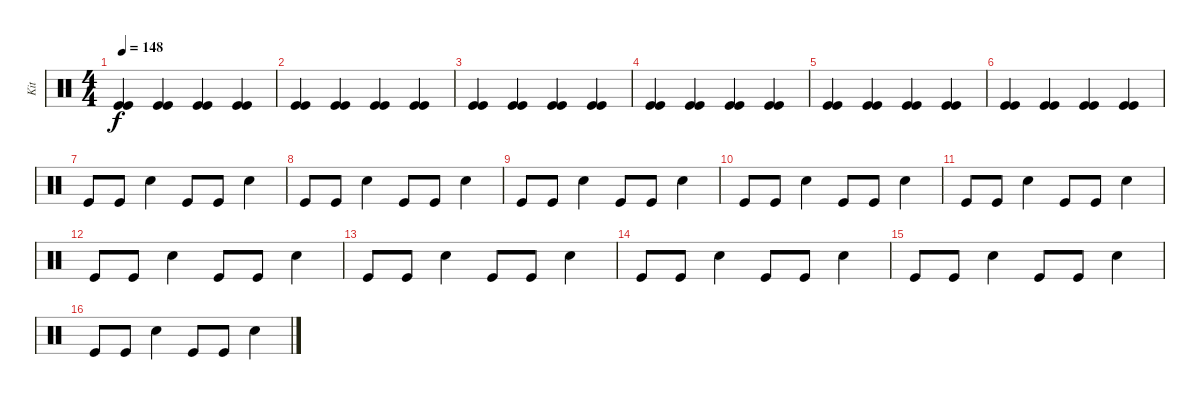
\track ("Kit" "Kit") {instrument percussion}
\staff {score}
\articulation defaults
\ts (4 4)
\tempo 148
\clef neutral
\ks c
("Kick (hit)" "Kick (hit)").4{dy f} ("Kick (hit)" "Kick (hit)").4 ("Kick (hit)" "Kick (hit)").4 ("Kick (hit)" "Kick (hit)").4 |
("Kick (hit)" "Kick (hit)").4 ("Kick (hit)" "Kick (hit)").4 ("Kick (hit)" "Kick (hit)").4 ("Kick (hit)" "Kick (hit)").4 |
("Kick (hit)" "Kick (hit)").4 ("Kick (hit)" "Kick (hit)").4 ("Kick (hit)" "Kick (hit)").4 ("Kick (hit)" "Kick (hit)").4 |
("Kick (hit)" "Kick (hit)").4 ("Kick (hit)" "Kick (hit)").4 ("Kick (hit)" "Kick (hit)").4 ("Kick (hit)" "Kick (hit)").4 |
("Kick (hit)" "Kick (hit)").4 ("Kick (hit)" "Kick (hit)").4 ("Kick (hit)" "Kick (hit)").4 ("Kick (hit)" "Kick (hit)").4 |
("Kick (hit)" "Kick (hit)").4 ("Kick (hit)" "Kick (hit)").4 ("Kick (hit)" "Kick (hit)").4 ("Kick (hit)" "Kick (hit)").4 |
"Kick (hit)".8{volume 9} "Kick (hit)".8 "Snare (hit) 2".4 "Kick (hit)".8 "Kick (hit)".8 "Snare (hit) 2".4 |
"Kick (hit)".8 "Kick (hit)".8 "Snare (hit) 2".4 "Kick (hit)".8 "Kick (hit)".8 "Snare (hit) 2".4 |
"Kick (hit)".8 "Kick (hit)".8 "Snare (hit) 2".4 "Kick (hit)".8 "Kick (hit)".8 "Snare (hit) 2".4 |
"Kick (hit)".8 "Kick (hit)".8 "Snare (hit) 2".4 "Kick (hit)".8 "Kick (hit)".8 "Snare (hit) 2".4 |
"Kick (hit)".8 "Kick (hit)".8 "Snare (hit) 2".4 "Kick (hit)".8 "Kick (hit)".8 "Snare (hit) 2".4 |
"Kick (hit)".8 "Kick (hit)".8 "Snare (hit) 2".4 "Kick (hit)".8 "Kick (hit)".8 "Snare (hit) 2".4 |
"Kick (hit)".8 "Kick (hit)".8 "Snare (hit) 2".4 "Kick (hit)".8 "Kick (hit)".8 "Snare (hit) 2".4 |
"Kick (hit)".8 "Kick (hit)".8 "Snare (hit) 2".4 "Kick (hit)".8 "Kick (hit)".8 "Snare (hit) 2".4 |
"Kick (hit)".8 "Kick (hit)".8 "Snare (hit) 2".4 "Kick (hit)".8 "Kick (hit)".8 "Snare (hit) 2".4 |
"Kick (hit)".8 "Kick (hit)".8 "Snare (hit) 2".4 "Kick (hit)".8 "Kick (hit)".8 "Snare (hit) 2".4
